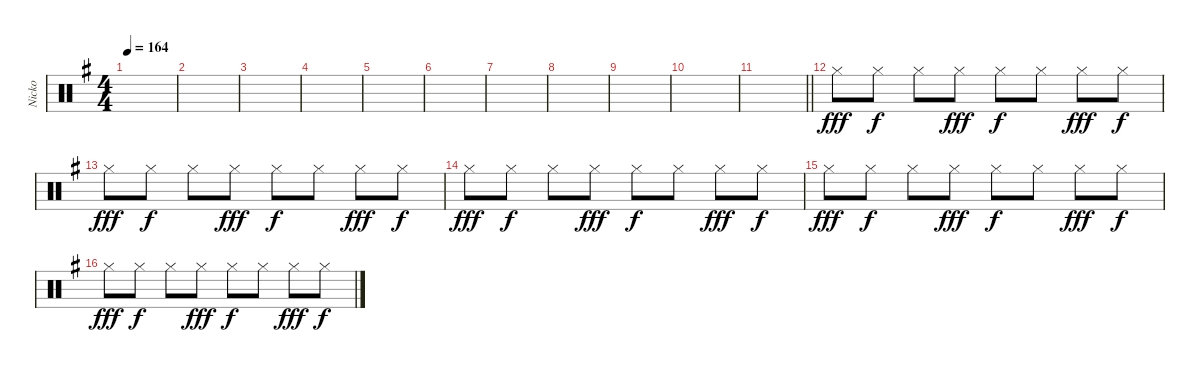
\track ("Nicko" "Nicko") {instrument percussion}
\staff {score}
\articulation defaults
\ts (4 4)
\tempo 164
\clef neutral
\ks eminor
|
|
|
|
|
|
|
|
|
|
\barLineRight lightlight
|
"Hi-Hat (closed)".8{dy fff} "Hi-Hat (closed)".8{dy f} "Hi-Hat (closed)".8 "Hi-Hat (closed)".8{dy fff} "Hi-Hat (closed)".8{dy f} "Hi-Hat (closed)".8 "Hi-Hat (closed)".8{dy fff} "Hi-Hat (closed)".8{dy f} |
"Hi-Hat (closed)".8{dy fff} "Hi-Hat (closed)".8{dy f} "Hi-Hat (closed)".8 "Hi-Hat (closed)".8{dy fff} "Hi-Hat (closed)".8{dy f} "Hi-Hat (closed)".8 "Hi-Hat (closed)".8{dy fff} "Hi-Hat (closed)".8{dy f} |
"Hi-Hat (closed)".8{dy fff} "Hi-Hat (closed)".8{dy f} "Hi-Hat (closed)".8 "Hi-Hat (closed)".8{dy fff} "Hi-Hat (closed)".8{dy f} "Hi-Hat (closed)".8 "Hi-Hat (closed)".8{dy fff} "Hi-Hat (closed)".8{dy f} |
"Hi-Hat (closed)".8{dy fff} "Hi-Hat (closed)".8{dy f} "Hi-Hat (closed)".8 "Hi-Hat (closed)".8{dy fff} "Hi-Hat (closed)".8{dy f} "Hi-Hat (closed)".8 "Hi-Hat (closed)".8{dy fff} "Hi-Hat (closed)".8{dy f} |
"Hi-Hat (closed)".8{dy fff} "Hi-Hat (closed)".8{dy f} "Hi-Hat (closed)".8 "Hi-Hat (closed)".8{dy fff} "Hi-Hat (closed)".8{dy f} "Hi-Hat (closed)".8 "Hi-Hat (closed)".8{dy fff} "Hi-Hat (closed)".8{dy f}
